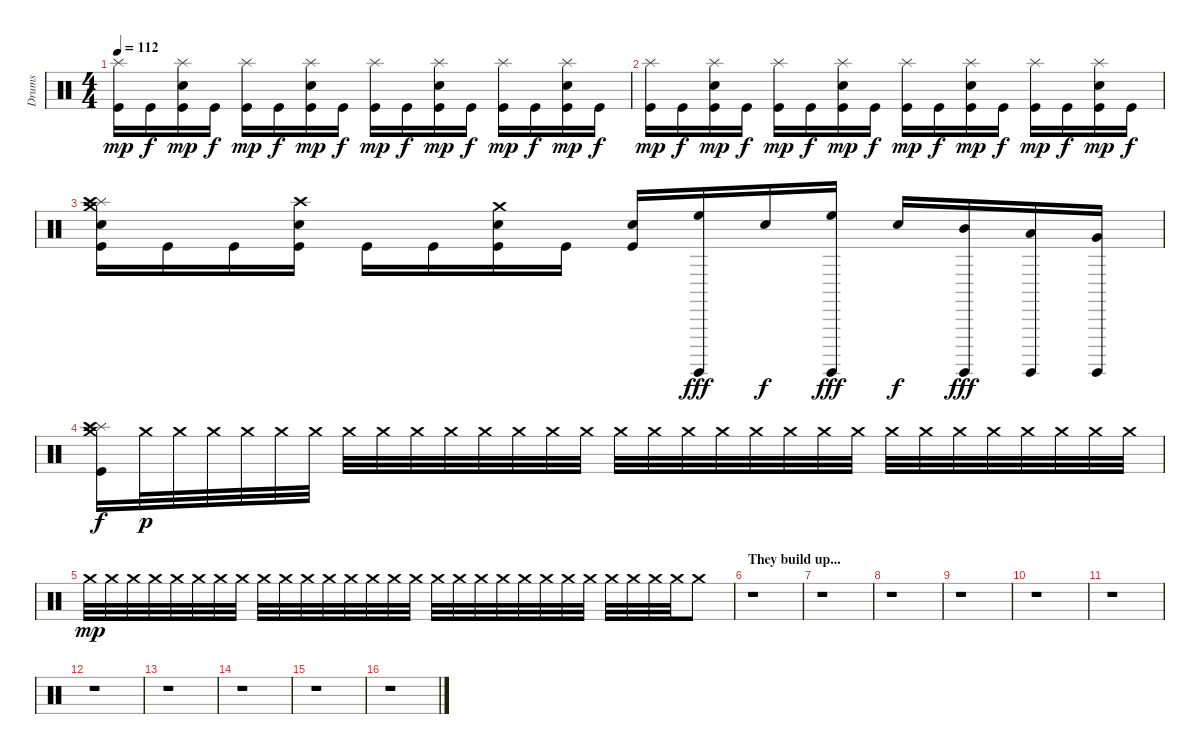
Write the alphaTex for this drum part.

\track ("Drums" "Drums") {instrument percussion}
\staff {score}
\articulation defaults
\ts (4 4)
\tempo 112
\clef neutral
\ks c
("Splash (hit)" "Kick (hit)").16{dy mp} "Kick (hit)".16{dy f} ("Splash (hit)" "Electric Snare (hit)" "Kick (hit)").16{dy mp} "Kick (hit)".16{dy f} ("Splash (hit)" "Kick (hit)").16{dy mp} "Kick (hit)".16{dy f} ("Splash (hit)" "Electric Snare (hit)" "Kick (hit)").16{dy mp} "Kick (hit)".16{dy f} ("Splash (hit)" "Kick (hit)").16{dy mp} "Kick (hit)".16{dy f} ("Splash (hit)" "Electric Snare (hit)" "Kick (hit)").16{dy mp} "Kick (hit)".16{dy f} ("Splash (hit)" "Kick (hit)").16{dy mp} "Kick (hit)".16{dy f} ("Splash (hit)" "Electric Snare (hit)" "Kick (hit)").16{dy mp} "Kick (hit)".16{dy f} |
("Splash (hit)" "Kick (hit)").16{dy mp} "Kick (hit)".16{dy f} ("Splash (hit)" "Electric Snare (hit)" "Kick (hit)").16{dy mp} "Kick (hit)".16{dy f} ("Splash (hit)" "Kick (hit)").16{dy mp} "Kick (hit)".16{dy f} ("Splash (hit)" "Electric Snare (hit)" "Kick (hit)").16{dy mp} "Kick (hit)".16{dy f} ("Splash (hit)" "Kick (hit)").16{dy mp} "Kick (hit)".16{dy f} ("Splash (hit)" "Electric Snare (hit)" "Kick (hit)").16{dy mp} "Kick (hit)".16{dy f} ("Splash (hit)" "Kick (hit)").16{dy mp} "Kick (hit)".16{dy f} ("Splash (hit)" "Electric Snare (hit)" "Kick (hit)").16{dy mp} "Kick (hit)".16{dy f} |
("Crash medium (hit)" "Splash (hit)" "Crash high (hit)" "Electric Snare (hit)" "Kick (hit)").16 "Kick (hit)".16 "Kick (hit)".16 ("Crash high (hit)" "Electric Snare (hit)" "Kick (hit)").16 "Kick (hit)".16 "Kick (hit)".16 ("Crash medium (hit)" "Electric Snare (hit)" "Kick (hit)").16 "Kick (hit)".16 ("Electric Snare (hit)" "Kick (hit)").16 ("Surdo (hit)" "High Floor Tom (hit)").16{dy fff} "Electric Snare (hit)".16{dy f} ("Surdo (hit)" "High Floor Tom (hit)").16{dy fff} "Electric Snare (hit)".16{dy f} ("Surdo (hit)" "Mid Tom (hit)").16{dy fff} ("Surdo (hit)" "Low Tom (hit)").16 ("Surdo (hit)" "Very Low Tom (hit)").16 |
("Crash medium (hit)" "Splash (hit)" "Crash high (hit)" "Kick (hit)").16{dy f} "Crash medium (hit)".32{dy p} "Crash medium (hit)".32 "Crash medium (hit)".32 "Crash medium (hit)".32 "Crash medium (hit)".32 "Crash medium (hit)".32 "Crash medium (hit)".32 "Crash medium (hit)".32 "Crash medium (hit)".32 "Crash medium (hit)".32 "Crash medium (hit)".32 "Crash medium (hit)".32 "Crash medium (hit)".32 "Crash medium (hit)".32 "Crash medium (hit)".32 "Crash medium (hit)".32 "Crash medium (hit)".32 "Crash medium (hit)".32 "Crash medium (hit)".32 "Crash medium (hit)".32 "Crash medium (hit)".32 "Crash medium (hit)".32 "Crash medium (hit)".32 "Crash medium (hit)".32 "Crash medium (hit)".32 "Crash medium (hit)".32 "Crash medium (hit)".32 "Crash medium (hit)".32 "Crash medium (hit)".32 "Crash medium (hit)".32 |
"Crash medium (hit)".32{dy mp} "Crash medium (hit)".32 "Crash medium (hit)".32 "Crash medium (hit)".32 "Crash medium (hit)".32 "Crash medium (hit)".32 "Crash medium (hit)".32 "Crash medium (hit)".32 "Crash medium (hit)".32 "Crash medium (hit)".32 "Crash medium (hit)".32 "Crash medium (hit)".32 "Crash medium (hit)".32 "Crash medium (hit)".32 "Crash medium (hit)".32 "Crash medium (hit)".32 "Crash medium (hit)".32 "Crash medium (hit)".32 "Crash medium (hit)".32 "Crash medium (hit)".32 "Crash medium (hit)".32 "Crash medium (hit)".32 "Crash medium (hit)".32 "Crash medium (hit)".32 "Crash medium (hit)".32 "Crash medium (hit)".32 "Crash medium (hit)".32 "Crash medium (hit)".32 "Crash medium (hit)".8 |
\section ("" "They build up...")
r.1 |
r.1 |
r.1 |
r.1 |
r.1 |
r.1 |
r.1 |
r.1 |
r.1 |
r.1 |
r.1
